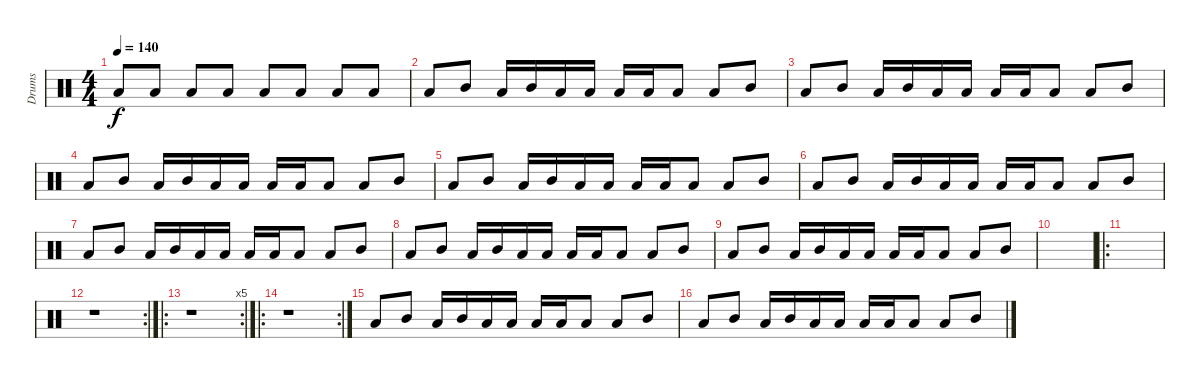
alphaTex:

\track ("Drums" "Drums") {instrument percussion}
\staff {score}
\articulation defaults
\ts (4 4)
\tempo 140
\clef neutral
\ks c "Low Tom (hit)".8{dy f} "Low Tom (hit)".8 "Low Tom (hit)".8 "Low Tom (hit)".8 "Low Tom (hit)".8 "Low Tom (hit)".8 "Low Tom (hit)".8 "Low Tom (hit)".8
|
"Low Tom (hit)".8 "Mid Tom (hit)".8 "Low Tom (hit)".16 "Mid Tom (hit)".16 "Low Tom (hit)".16 "Low Tom (hit)".16 "Low Tom (hit)".16 "Low Tom (hit)".16 "Low Tom (hit)".8 "Low Tom (hit)".8 "Mid Tom (hit)".8 |
"Low Tom (hit)".8 "Mid Tom (hit)".8 "Low Tom (hit)".16 "Mid Tom (hit)".16 "Low Tom (hit)".16 "Low Tom (hit)".16 "Low Tom (hit)".16 "Low Tom (hit)".16 "Low Tom (hit)".8 "Low Tom (hit)".8 "Mid Tom (hit)".8 |
"Low Tom (hit)".8 "Mid Tom (hit)".8 "Low Tom (hit)".16 "Mid Tom (hit)".16 "Low Tom (hit)".16 "Low Tom (hit)".16 "Low Tom (hit)".16 "Low Tom (hit)".16 "Low Tom (hit)".8 "Low Tom (hit)".8 "Mid Tom (hit)".8 |
"Low Tom (hit)".8 "Mid Tom (hit)".8 "Low Tom (hit)".16 "Mid Tom (hit)".16 "Low Tom (hit)".16 "Low Tom (hit)".16 "Low Tom (hit)".16 "Low Tom (hit)".16 "Low Tom (hit)".8 "Low Tom (hit)".8 "Mid Tom (hit)".8 |
"Low Tom (hit)".8 "Mid Tom (hit)".8 "Low Tom (hit)".16 "Mid Tom (hit)".16 "Low Tom (hit)".16 "Low Tom (hit)".16 "Low Tom (hit)".16 "Low Tom (hit)".16 "Low Tom (hit)".8 "Low Tom (hit)".8 "Mid Tom (hit)".8 |
"Low Tom (hit)".8 "Mid Tom (hit)".8 "Low Tom (hit)".16 "Mid Tom (hit)".16 "Low Tom (hit)".16 "Low Tom (hit)".16 "Low Tom (hit)".16 "Low Tom (hit)".16 "Low Tom (hit)".8 "Low Tom (hit)".8 "Mid Tom (hit)".8 |
"Low Tom (hit)".8 "Mid Tom (hit)".8 "Low Tom (hit)".16 "Mid Tom (hit)".16 "Low Tom (hit)".16 "Low Tom (hit)".16 "Low Tom (hit)".16 "Low Tom (hit)".16 "Low Tom (hit)".8 "Low Tom (hit)".8 "Mid Tom (hit)".8 |
"Low Tom (hit)".8 "Mid Tom (hit)".8 "Low Tom (hit)".16 "Mid Tom (hit)".16 "Low Tom (hit)".16 "Low Tom (hit)".16 "Low Tom (hit)".16 "Low Tom (hit)".16 "Low Tom (hit)".8 "Low Tom (hit)".8 "Mid Tom (hit)".8 |
|
\ro
|
\rc 2
r.1 |
\ro
\rc 5
r.1 |
\ro
\rc 2
r.1 |
"Low Tom (hit)".8 "Mid Tom (hit)".8 "Low Tom (hit)".16 "Mid Tom (hit)".16 "Low Tom (hit)".16 "Low Tom (hit)".16 "Low Tom (hit)".16 "Low Tom (hit)".16 "Low Tom (hit)".8 "Low Tom (hit)".8 "Mid Tom (hit)".8 |
"Low Tom (hit)".8 "Mid Tom (hit)".8 "Low Tom (hit)".16 "Mid Tom (hit)".16 "Low Tom (hit)".16 "Low Tom (hit)".16 "Low Tom (hit)".16 "Low Tom (hit)".16 "Low Tom (hit)".8 "Low Tom (hit)".8 "Mid Tom (hit)".8
